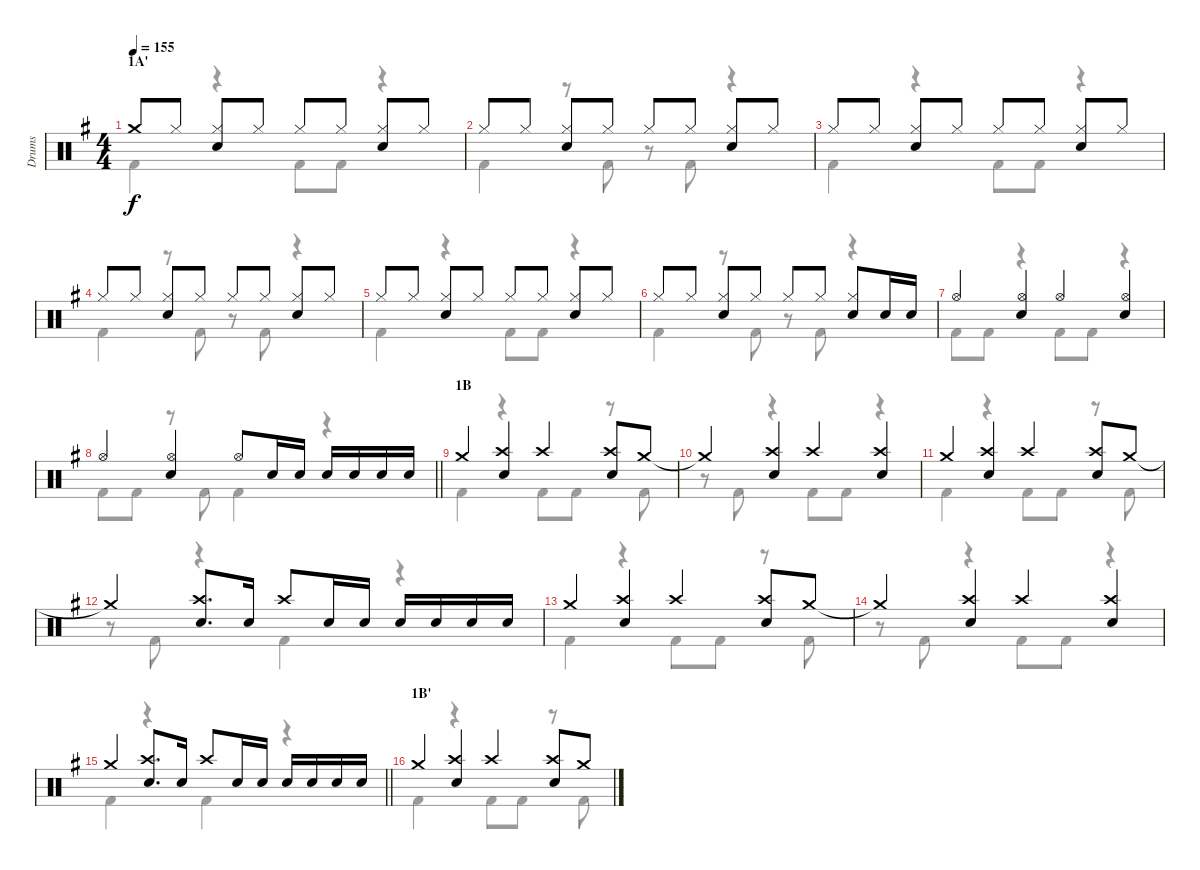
\track ("Drums" "Drums") {instrument percussion}
\staff {score}
\articulation defaults
\voice
\ts (4 4)
\section ("" "1A'")
\tempo 155
\clef neutral
\ks g "Crash medium (hit)".8{dy f} "Hi-Hat (closed)".8
("Hi-Hat (closed)" "Electric Snare (hit)").8 "Hi-Hat (closed)".8 "Hi-Hat (closed)".8 "Hi-Hat (closed)".8 ("Hi-Hat (closed)" "Electric Snare (hit)").8 "Hi-Hat (closed)".8 |
"Hi-Hat (closed)".8 "Hi-Hat (closed)".8 ("Hi-Hat (closed)" "Electric Snare (hit)").8 "Hi-Hat (closed)".8 "Hi-Hat (closed)".8 "Hi-Hat (closed)".8 ("Hi-Hat (closed)" "Electric Snare (hit)").8 "Hi-Hat (closed)".8 |
"Hi-Hat (closed)".8 "Hi-Hat (closed)".8 ("Hi-Hat (closed)" "Electric Snare (hit)").8 "Hi-Hat (closed)".8 "Hi-Hat (closed)".8 "Hi-Hat (closed)".8 ("Hi-Hat (closed)" "Electric Snare (hit)").8 "Hi-Hat (closed)".8 |
"Hi-Hat (closed)".8 "Hi-Hat (closed)".8 ("Hi-Hat (closed)" "Electric Snare (hit)").8 "Hi-Hat (closed)".8 "Hi-Hat (closed)".8 "Hi-Hat (closed)".8 ("Hi-Hat (closed)" "Electric Snare (hit)").8 "Hi-Hat (closed)".8 |
"Hi-Hat (closed)".8 "Hi-Hat (closed)".8 ("Hi-Hat (closed)" "Electric Snare (hit)").8 "Hi-Hat (closed)".8 "Hi-Hat (closed)".8 "Hi-Hat (closed)".8 ("Hi-Hat (closed)" "Electric Snare (hit)").8 "Hi-Hat (closed)".8 |
"Hi-Hat (closed)".8 "Hi-Hat (closed)".8 ("Hi-Hat (closed)" "Electric Snare (hit)").8 "Hi-Hat (closed)".8 "Hi-Hat (closed)".8 "Hi-Hat (closed)".8 ("Hi-Hat (closed)" "Electric Snare (hit)").8 "Electric Snare (hit)".16 "Electric Snare (hit)".16 |
"Hi-Hat (open)".4 ("Hi-Hat (open)" "Electric Snare (hit)").4 "Hi-Hat (open)".4 ("Hi-Hat (open)" "Electric Snare (hit)").4 |
\barLineRight lightlight "Hi-Hat (open)".4
("Hi-Hat (open)" "Electric Snare (hit)").4 "Hi-Hat (open)".8 "Electric Snare (hit)".16 "Electric Snare (hit)".16 "Electric Snare (hit)".16 "Electric Snare (hit)".16 "Electric Snare (hit)".16 "Electric Snare (hit)".16 |
\section ("" "1B")
"Crash medium (hit)".4 ("Crash high (hit)" "Electric Snare (hit)").4 "Crash high (hit)".4 ("Crash high (hit)" "Electric Snare (hit)").8 "Crash medium (hit)".8 |
"Crash medium (hit)"{t}.4 ("Crash high (hit)" "Electric Snare (hit)").4 "Crash high (hit)".4 ("Crash high (hit)" "Electric Snare (hit)").4 |
"Crash medium (hit)".4 ("Crash high (hit)" "Electric Snare (hit)").4 "Crash high (hit)".4 ("Crash high (hit)" "Electric Snare (hit)").8 "Crash medium (hit)".8 |
"Crash medium (hit)"{t}.4 ("Crash high (hit)" "Electric Snare (hit)").8{d} "Electric Snare (hit)".16 "Crash high (hit)".8 "Electric Snare (hit)".16 "Electric Snare (hit)".16 "Electric Snare (hit)".16 "Electric Snare (hit)".16 "Electric Snare (hit)".16 "Electric Snare (hit)".16 |
"Crash medium (hit)".4 ("Crash high (hit)" "Electric Snare (hit)").4 "Crash high (hit)".4 ("Crash high (hit)" "Electric Snare (hit)").8 "Crash medium (hit)".8 |
"Crash medium (hit)"{t}.4 ("Crash high (hit)" "Electric Snare (hit)").4 "Crash high (hit)".4 ("Crash high (hit)" "Electric Snare (hit)").4 |
\barLineRight lightlight "Crash medium (hit)".4
("Crash high (hit)" "Electric Snare (hit)").8{d} "Electric Snare (hit)".16 "Crash high (hit)".8 "Electric Snare (hit)".16 "Electric Snare (hit)".16 "Electric Snare (hit)".16 "Electric Snare (hit)".16 "Electric Snare (hit)".16 "Electric Snare (hit)".16 |
\section ("" "1B'")
"Crash medium (hit)".4 ("Crash high (hit)" "Electric Snare (hit)").4 "Crash high (hit)".4 ("Crash high (hit)" "Electric Snare (hit)").8 "Crash medium (hit)".8
\voice
\clef neutral
\ottava regular
\simile none
\ks g "Kick (hit) 2".4{dy f}
r.4 "Kick (hit) 2".8 "Kick (hit) 2".8 r.4 |
"Kick (hit) 2".4 r.8 "Kick (hit) 2".8 r.8 "Kick (hit) 2".8 r.4 |
"Kick (hit) 2".4 r.4 "Kick (hit) 2".8 "Kick (hit) 2".8 r.4 |
"Kick (hit) 2".4 r.8 "Kick (hit) 2".8 r.8 "Kick (hit) 2".8 r.4 |
"Kick (hit) 2".4 r.4 "Kick (hit) 2".8 "Kick (hit) 2".8 r.4 |
"Kick (hit) 2".4 r.8 "Kick (hit) 2".8 r.8 "Kick (hit) 2".8 r.4 |
"Kick (hit) 2".8 "Kick (hit) 2".8 r.4 "Kick (hit) 2".8 "Kick (hit) 2".8 r.4 |
\barLineRight lightlight "Kick (hit) 2".8 "Kick (hit) 2".8
r.8 "Kick (hit) 2".8 "Kick (hit) 2".4 r.4 |
"Kick (hit) 2".4 r.4 "Kick (hit) 2".8 "Kick (hit) 2".8 r.8 "Kick (hit) 2".8 |
r.8 "Kick (hit) 2".8 r.4 "Kick (hit) 2".8 "Kick (hit) 2".8 r.4 |
"Kick (hit) 2".4 r.4 "Kick (hit) 2".8 "Kick (hit) 2".8 r.8 "Kick (hit) 2".8 |
r.8 "Kick (hit) 2".8 r.4 "Kick (hit) 2".4 r.4 |
"Kick (hit) 2".4 r.4 "Kick (hit) 2".8 "Kick (hit) 2".8 r.8 "Kick (hit) 2".8 |
r.8 "Kick (hit) 2".8 r.4 "Kick (hit) 2".8 "Kick (hit) 2".8 r.4 |
\barLineRight lightlight "Kick (hit) 2".4
r.4 "Kick (hit) 2".4 r.4 |
"Kick (hit) 2".4 r.4 "Kick (hit) 2".8 "Kick (hit) 2".8 r.8 "Kick (hit) 2".8
